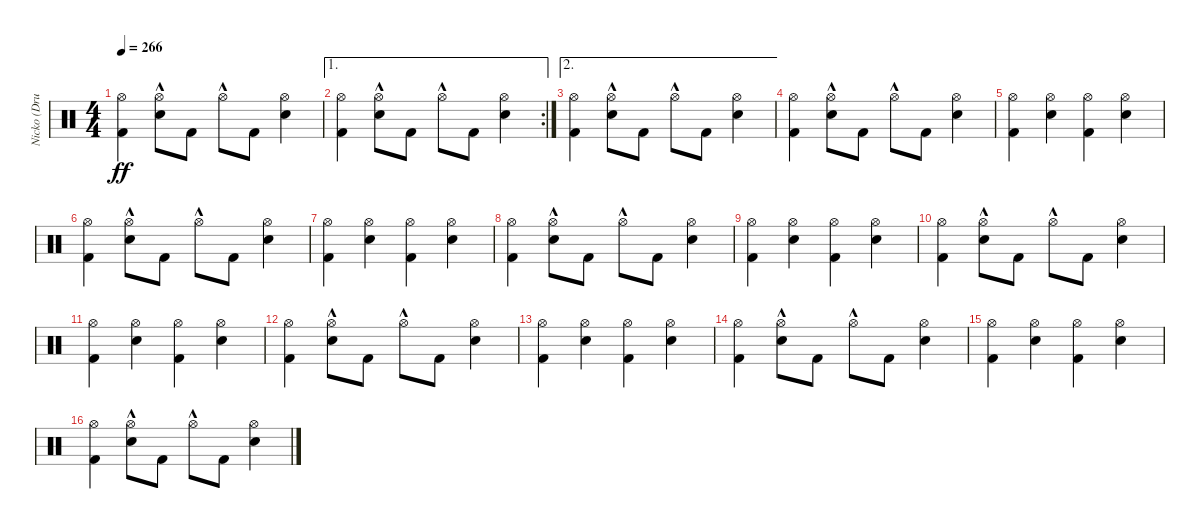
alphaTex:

\track ("Nicko (Drums)" "Nicko (Dru") {instrument percussion}
\staff {score}
\articulation defaults
\ts (4 4)
\tempo 266
\clef neutral
\ks c
("Kick (hit) 2" "Hi-Hat (open)").4{dy ff} ("Snare (hit) 2" "Hi-Hat (open)"{hac}).8 "Kick (hit) 2".8 "Hi-Hat (open)"{hac}.8 "Kick (hit) 2".8 ("Snare (hit) 2" "Hi-Hat (open)").4 |
\ae 1
\rc 2
("Kick (hit) 2" "Hi-Hat (open)").4 ("Snare (hit) 2" "Hi-Hat (open)"{hac}).8 "Kick (hit) 2".8 "Hi-Hat (open)"{hac}.8 "Kick (hit) 2".8 ("Snare (hit) 2" "Hi-Hat (open)").4 |
\ae 2
("Kick (hit) 2" "Hi-Hat (open)").4 ("Snare (hit) 2" "Hi-Hat (open)"{hac}).8 "Kick (hit) 2".8 "Hi-Hat (open)"{hac}.8 "Kick (hit) 2".8 ("Snare (hit) 2" "Hi-Hat (open)").4 |
("Kick (hit) 2" "Hi-Hat (open)").4 ("Snare (hit) 2" "Hi-Hat (open)"{hac}).8 "Kick (hit) 2".8 "Hi-Hat (open)"{hac}.8 "Kick (hit) 2".8 ("Snare (hit) 2" "Hi-Hat (open)").4 |
("Kick (hit) 2" "Hi-Hat (open)").4 ("Snare (hit) 2" "Hi-Hat (open)").4 ("Kick (hit) 2" "Hi-Hat (open)").4 ("Snare (hit) 2" "Hi-Hat (open)").4 |
("Kick (hit) 2" "Hi-Hat (open)").4 ("Snare (hit) 2" "Hi-Hat (open)"{hac}).8 "Kick (hit) 2".8 "Hi-Hat (open)"{hac}.8 "Kick (hit) 2".8 ("Snare (hit) 2" "Hi-Hat (open)").4 |
("Kick (hit) 2" "Hi-Hat (open)").4 ("Snare (hit) 2" "Hi-Hat (open)").4 ("Kick (hit) 2" "Hi-Hat (open)").4 ("Snare (hit) 2" "Hi-Hat (open)").4 |
("Kick (hit) 2" "Hi-Hat (open)").4 ("Snare (hit) 2" "Hi-Hat (open)"{hac}).8 "Kick (hit) 2".8 "Hi-Hat (open)"{hac}.8 "Kick (hit) 2".8 ("Snare (hit) 2" "Hi-Hat (open)").4 |
("Kick (hit) 2" "Hi-Hat (open)").4 ("Snare (hit) 2" "Hi-Hat (open)").4 ("Kick (hit) 2" "Hi-Hat (open)").4 ("Snare (hit) 2" "Hi-Hat (open)").4 |
("Kick (hit) 2" "Hi-Hat (open)").4 ("Snare (hit) 2" "Hi-Hat (open)"{hac}).8 "Kick (hit) 2".8 "Hi-Hat (open)"{hac}.8 "Kick (hit) 2".8 ("Snare (hit) 2" "Hi-Hat (open)").4 |
("Kick (hit) 2" "Hi-Hat (open)").4 ("Snare (hit) 2" "Hi-Hat (open)").4 ("Kick (hit) 2" "Hi-Hat (open)").4 ("Snare (hit) 2" "Hi-Hat (open)").4 |
("Kick (hit) 2" "Hi-Hat (open)").4 ("Snare (hit) 2" "Hi-Hat (open)"{hac}).8 "Kick (hit) 2".8 "Hi-Hat (open)"{hac}.8 "Kick (hit) 2".8 ("Snare (hit) 2" "Hi-Hat (open)").4 |
("Kick (hit) 2" "Hi-Hat (open)").4 ("Snare (hit) 2" "Hi-Hat (open)").4 ("Kick (hit) 2" "Hi-Hat (open)").4 ("Snare (hit) 2" "Hi-Hat (open)").4 |
("Kick (hit) 2" "Hi-Hat (open)").4 ("Snare (hit) 2" "Hi-Hat (open)"{hac}).8 "Kick (hit) 2".8 "Hi-Hat (open)"{hac}.8 "Kick (hit) 2".8 ("Snare (hit) 2" "Hi-Hat (open)").4 |
("Kick (hit) 2" "Hi-Hat (open)").4 ("Snare (hit) 2" "Hi-Hat (open)").4 ("Kick (hit) 2" "Hi-Hat (open)").4 ("Snare (hit) 2" "Hi-Hat (open)").4 |
("Kick (hit) 2" "Hi-Hat (open)").4 ("Snare (hit) 2" "Hi-Hat (open)"{hac}).8 "Kick (hit) 2".8 "Hi-Hat (open)"{hac}.8 "Kick (hit) 2".8 ("Snare (hit) 2" "Hi-Hat (open)").4
